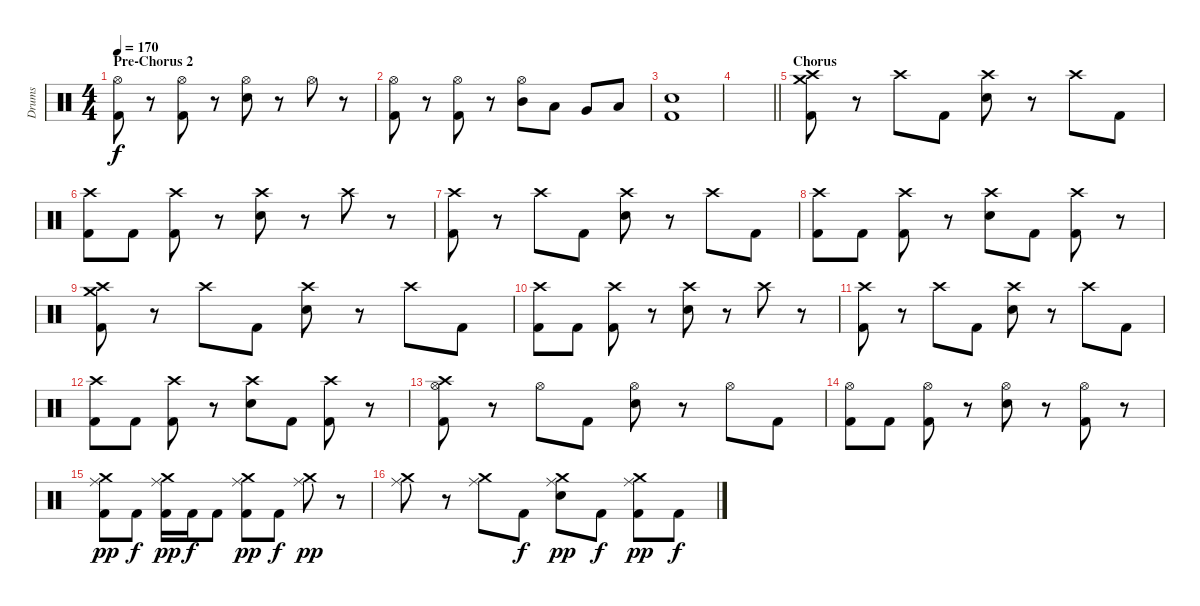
\track ("Drums" "Drums") {instrument percussion}
\staff {score}
\articulation defaults
\ts (4 4)
\section ("" "Pre-Chorus 2")
\tempo 170
\clef neutral
\ks c
("Hi-Hat (open)" "Kick (hit) 2").8{dy f} r.8 ("Hi-Hat (open)" "Kick (hit) 2").8 r.8 ("Hi-Hat (open)" "Electric Snare (hit)").8 r.8 "Hi-Hat (open)".8 r.8 |
("Hi-Hat (open)" "Kick (hit) 2").8 r.8 ("Hi-Hat (open)" "Kick (hit) 2").8 r.8 ("Hi-Hat (open)" "Mid Tom (hit)").8 "Low Tom (hit)".8 "Very Low Tom (hit)".8 "Low Floor Tom (hit)".8 |
("Electric Snare (hit)" "Kick (hit) 2").1 |
\barLineRight lightlight
|
\section ("" "Chorus")
("Crash high (hit)" "Kick (hit) 2" "Crash medium (hit)").8 r.8 "Crash high (hit)".8 "Kick (hit) 2".8 ("Crash high (hit)" "Electric Snare (hit)").8 r.8 "Crash high (hit)".8 "Kick (hit) 2".8 |
("Crash high (hit)" "Kick (hit) 2").8 "Kick (hit) 2".8 ("Crash high (hit)" "Kick (hit) 2").8 r.8 ("Crash high (hit)" "Electric Snare (hit)").8 r.8 "Crash high (hit)".8 r.8 |
("Crash high (hit)" "Kick (hit) 2").8 r.8 "Crash high (hit)".8 "Kick (hit) 2".8 ("Crash high (hit)" "Electric Snare (hit)").8 r.8 "Crash high (hit)".8 "Kick (hit) 2".8 |
("Crash high (hit)" "Kick (hit) 2").8 "Kick (hit) 2".8 ("Crash high (hit)" "Kick (hit) 2").8 r.8 ("Crash high (hit)" "Electric Snare (hit)").8 "Kick (hit) 2".8 ("Crash high (hit)" "Kick (hit) 2").8 r.8 |
("Crash high (hit)" "Kick (hit) 2" "Crash medium (hit)").8 r.8 "Crash high (hit)".8 "Kick (hit) 2".8 ("Crash high (hit)" "Electric Snare (hit)").8 r.8 "Crash high (hit)".8 "Kick (hit) 2".8 |
("Crash high (hit)" "Kick (hit) 2").8 "Kick (hit) 2".8 ("Crash high (hit)" "Kick (hit) 2").8 r.8 ("Crash high (hit)" "Electric Snare (hit)").8 r.8 "Crash high (hit)".8 r.8 |
("Crash high (hit)" "Kick (hit) 2").8 r.8 "Crash high (hit)".8 "Kick (hit) 2".8 ("Crash high (hit)" "Electric Snare (hit)").8 r.8 "Crash high (hit)".8 "Kick (hit) 2".8 |
("Crash high (hit)" "Kick (hit) 2").8 "Kick (hit) 2".8 ("Crash high (hit)" "Kick (hit) 2").8 r.8 ("Crash high (hit)" "Electric Snare (hit)").8 "Kick (hit) 2".8 ("Crash high (hit)" "Kick (hit) 2").8 r.8 |
("Hi-Hat (open)" "Kick (hit) 2" "Crash high (hit)").8 r.8 "Hi-Hat (open)".8 "Kick (hit) 2".8 ("Hi-Hat (open)" "Electric Snare (hit)").8 r.8 "Hi-Hat (open)".8 "Kick (hit) 2".8 |
("Hi-Hat (open)" "Kick (hit) 2").8 "Kick (hit) 2".8 ("Hi-Hat (open)" "Kick (hit) 2").8 r.8 ("Hi-Hat (open)" "Electric Snare (hit)").8 r.8 ("Hi-Hat (open)" "Kick (hit) 2").8 r.8 |
("Ride (middle)" "Kick (hit) 2" "Crash medium (hit)").8{dy pp} "Kick (hit) 2".8{dy f} ("Ride (middle)" "Kick (hit) 2" "Crash medium (hit)").16{dy pp} "Kick (hit) 2".16{dy f} "Kick (hit) 2".8 ("Ride (middle)" "Kick (hit) 2" "Crash medium (hit)").8{dy pp} "Kick (hit) 2".8{dy f} ("Ride (middle)" "Crash medium (hit)").8{dy pp} r.8 |
("Ride (middle)" "Crash medium (hit)").8 r.8 ("Ride (middle)" "Crash medium (hit)").8 "Kick (hit) 2".8{dy f} ("Ride (middle)" "Electric Snare (hit)" "Crash medium (hit)").8{dy pp} "Kick (hit) 2".8{dy f} ("Ride (middle)" "Kick (hit) 2" "Crash medium (hit)").8{dy pp} "Kick (hit) 2".8{dy f}
